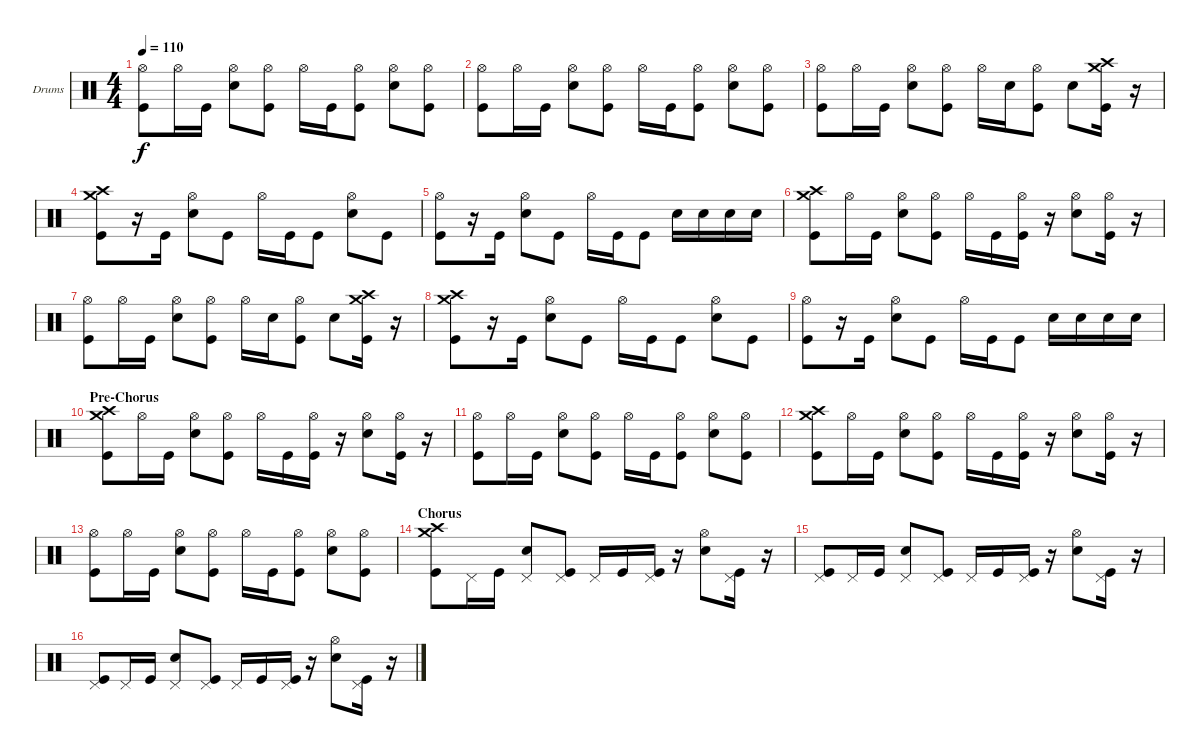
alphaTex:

\defaultSystemsLayout 4
\bracketExtendMode nobrackets
\firstSystemTrackNameOrientation horizontal
\otherSystemsTrackNameOrientation horizontal
\track ("Dave Abbruzzese" "Drums") {solo instrument percussion}
\staff {score}
\articulation defaults
\ts (4 4)
\tempo 110
\clef neutral
\ks c
("Kick (hit)" "Hi-Hat (open)").8{dy f} "Hi-Hat (open)".16 "Kick (hit)".16 ("Snare (hit) 2" "Hi-Hat (open)").8 ("Kick (hit)" "Hi-Hat (open)").8 "Hi-Hat (open)".16 "Kick (hit)".16 ("Kick (hit)" "Hi-Hat (open)").8 ("Snare (hit) 2" "Hi-Hat (open)").8 ("Kick (hit)" "Hi-Hat (open)").8 |
("Kick (hit)" "Hi-Hat (open)").8 "Hi-Hat (open)".16 "Kick (hit)".16 ("Snare (hit) 2" "Hi-Hat (open)").8 ("Kick (hit)" "Hi-Hat (open)").8 "Hi-Hat (open)".16 "Kick (hit)".16 ("Kick (hit)" "Hi-Hat (open)").8 ("Snare (hit) 2" "Hi-Hat (open)").8 ("Kick (hit)" "Hi-Hat (open)").8 |
("Kick (hit)" "Hi-Hat (open)").8 "Hi-Hat (open)".16 "Kick (hit)".16 ("Snare (hit) 2" "Hi-Hat (open)").8 ("Kick (hit)" "Hi-Hat (open)").8 "Hi-Hat (open)".16 "Snare (hit) 2".16 ("Kick (hit)" "Hi-Hat (open)").8 "Snare (hit) 2".8 ("Crash high (hit)" "Kick (hit)" "Crash medium (hit)").16 r.16 |
("Crash high (hit)" "Kick (hit)" "Crash medium (hit)").8 r.16 "Kick (hit)".16 ("Snare (hit) 2" "Hi-Hat (open)").8 "Kick (hit)".8 "Hi-Hat (open)".16 "Kick (hit)".16 "Kick (hit)".8 ("Snare (hit) 2" "Hi-Hat (open)").8 "Kick (hit)".8 |
("Kick (hit)" "Hi-Hat (open)").8 r.16 "Kick (hit)".16 ("Snare (hit) 2" "Hi-Hat (open)").8 "Kick (hit)".8 "Hi-Hat (open)".16 "Kick (hit)".16 "Kick (hit)".8 "Snare (hit) 2".16 "Snare (hit) 2".16 "Snare (hit) 2".16 "Snare (hit) 2".16 |
("Crash high (hit)" "Kick (hit)" "Crash medium (hit)").8 "Hi-Hat (open)".16 "Kick (hit)".16 ("Snare (hit) 2" "Hi-Hat (open)").8 ("Kick (hit)" "Hi-Hat (open)").8 "Hi-Hat (open)".16 "Kick (hit)".16 ("Kick (hit)" "Hi-Hat (open)").16 r.16 ("Snare (hit) 2" "Hi-Hat (open)").8 ("Kick (hit)" "Hi-Hat (open)").16 r.16 |
("Kick (hit)" "Hi-Hat (open)").8 "Hi-Hat (open)".16 "Kick (hit)".16 ("Snare (hit) 2" "Hi-Hat (open)").8 ("Kick (hit)" "Hi-Hat (open)").8 "Hi-Hat (open)".16 "Snare (hit) 2".16 ("Kick (hit)" "Hi-Hat (open)").8 "Snare (hit) 2".8 ("Crash high (hit)" "Kick (hit)" "Crash medium (hit)").16 r.16 |
("Crash high (hit)" "Kick (hit)" "Crash medium (hit)").8 r.16 "Kick (hit)".16 ("Snare (hit) 2" "Hi-Hat (open)").8 "Kick (hit)".8 "Hi-Hat (open)".16 "Kick (hit)".16 "Kick (hit)".8 ("Snare (hit) 2" "Hi-Hat (open)").8 "Kick (hit)".8 |
("Kick (hit)" "Hi-Hat (open)").8 r.16 "Kick (hit)".16 ("Snare (hit) 2" "Hi-Hat (open)").8 "Kick (hit)".8 "Hi-Hat (open)".16 "Kick (hit)".16 "Kick (hit)".8 "Snare (hit) 2".16 "Snare (hit) 2".16 "Snare (hit) 2".16 "Snare (hit) 2".16 |
\section ("" "Pre-Chorus")
("Crash high (hit)" "Kick (hit)" "Crash medium (hit)").8 "Hi-Hat (open)".16 "Kick (hit)".16 ("Snare (hit) 2" "Hi-Hat (open)").8 ("Kick (hit)" "Hi-Hat (open)").8 "Hi-Hat (open)".16 "Kick (hit)".16 ("Kick (hit)" "Hi-Hat (open)").16 r.16 ("Snare (hit) 2" "Hi-Hat (open)").8 ("Kick (hit)" "Hi-Hat (open)").16 r.16 |
("Kick (hit)" "Hi-Hat (open)").8 "Hi-Hat (open)".16 "Kick (hit)".16 ("Snare (hit) 2" "Hi-Hat (open)").8 ("Kick (hit)" "Hi-Hat (open)").8 "Hi-Hat (open)".16 "Kick (hit)".16 ("Kick (hit)" "Hi-Hat (open)").8 ("Snare (hit) 2" "Hi-Hat (open)").8 ("Kick (hit)" "Hi-Hat (open)").8 |
("Crash high (hit)" "Kick (hit)" "Crash medium (hit)").8 "Hi-Hat (open)".16 "Kick (hit)".16 ("Snare (hit) 2" "Hi-Hat (open)").8 ("Kick (hit)" "Hi-Hat (open)").8 "Hi-Hat (open)".16 "Kick (hit)".16 ("Kick (hit)" "Hi-Hat (open)").16 r.16 ("Snare (hit) 2" "Hi-Hat (open)").8 ("Kick (hit)" "Hi-Hat (open)").16 r.16 |
("Kick (hit)" "Hi-Hat (open)").8 "Hi-Hat (open)".16 "Kick (hit)".16 ("Snare (hit) 2" "Hi-Hat (open)").8 ("Kick (hit)" "Hi-Hat (open)").8 "Hi-Hat (open)".16 "Kick (hit)".16 ("Kick (hit)" "Hi-Hat (open)").8 ("Snare (hit) 2" "Hi-Hat (open)").8 ("Kick (hit)" "Hi-Hat (open)").8 |
\section ("" "Chorus")
("Crash high (hit)" "Kick (hit)" "Crash medium (hit)").8 "Pedal Hi-Hat (hit)".16 "Kick (hit)".16 ("Snare (hit) 2" "Pedal Hi-Hat (hit)").8 ("Kick (hit)" "Pedal Hi-Hat (hit)").8 "Pedal Hi-Hat (hit)".16 "Kick (hit)".16 ("Kick (hit)" "Pedal Hi-Hat (hit)").16 r.16 ("Snare (hit) 2" "Hi-Hat (open)").8 ("Kick (hit)" "Pedal Hi-Hat (hit)").16 r.16 |
("Kick (hit)" "Pedal Hi-Hat (hit)").8 "Pedal Hi-Hat (hit)".16 "Kick (hit)".16 ("Snare (hit) 2" "Pedal Hi-Hat (hit)").8 ("Kick (hit)" "Pedal Hi-Hat (hit)").8 "Pedal Hi-Hat (hit)".16 "Kick (hit)".16 ("Kick (hit)" "Pedal Hi-Hat (hit)").16 r.16 ("Snare (hit) 2" "Hi-Hat (open)").8 ("Kick (hit)" "Pedal Hi-Hat (hit)").16 r.16 |
("Kick (hit)" "Pedal Hi-Hat (hit)").8 "Pedal Hi-Hat (hit)".16 "Kick (hit)".16 ("Snare (hit) 2" "Pedal Hi-Hat (hit)").8 ("Kick (hit)" "Pedal Hi-Hat (hit)").8 "Pedal Hi-Hat (hit)".16 "Kick (hit)".16 ("Kick (hit)" "Pedal Hi-Hat (hit)").16 r.16 ("Snare (hit) 2" "Hi-Hat (open)").8 ("Kick (hit)" "Pedal Hi-Hat (hit)").16 r.16
